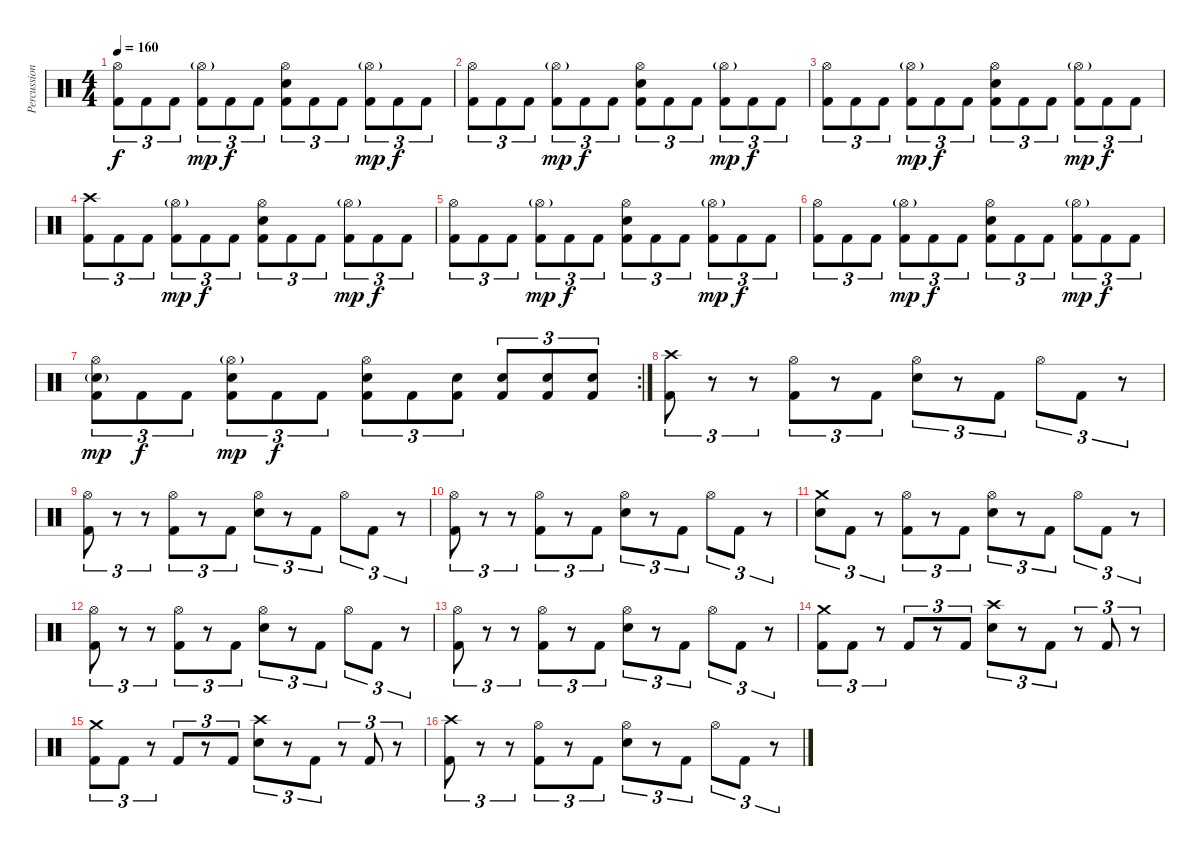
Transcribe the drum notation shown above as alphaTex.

\track ("Percussion" "Percussion") {instrument percussion}
\staff {score}
\articulation defaults
\ts (4 4)
\tempo 160
\clef neutral
\ks c
("Hi-Hat (open)" "Kick (hit) 2").8{tu (3 2) dy f} "Kick (hit) 2".8{tu (3 2)} "Kick (hit) 2".8{tu (3 2)} ("Hi-Hat (open)"{g} "Kick (hit) 2").8{tu (3 2) dy mp} "Kick (hit) 2".8{tu (3 2) dy f} "Kick (hit) 2".8{tu (3 2)} ("Hi-Hat (open)" "Electric Snare (hit)" "Kick (hit) 2").8{tu (3 2)} "Kick (hit) 2".8{tu (3 2)} "Kick (hit) 2".8{tu (3 2)} ("Hi-Hat (open)"{g} "Kick (hit) 2").8{tu (3 2) dy mp} "Kick (hit) 2".8{tu (3 2) dy f} "Kick (hit) 2".8{tu (3 2)} |
("Hi-Hat (open)" "Kick (hit) 2").8{tu (3 2)} "Kick (hit) 2".8{tu (3 2)} "Kick (hit) 2".8{tu (3 2)} ("Hi-Hat (open)"{g} "Kick (hit) 2").8{tu (3 2) dy mp} "Kick (hit) 2".8{tu (3 2) dy f} "Kick (hit) 2".8{tu (3 2)} ("Hi-Hat (open)" "Electric Snare (hit)" "Kick (hit) 2").8{tu (3 2)} "Kick (hit) 2".8{tu (3 2)} "Kick (hit) 2".8{tu (3 2)} ("Hi-Hat (open)"{g} "Kick (hit) 2").8{tu (3 2) dy mp} "Kick (hit) 2".8{tu (3 2) dy f} "Kick (hit) 2".8{tu (3 2)} |
("Hi-Hat (open)" "Kick (hit) 2").8{tu (3 2)} "Kick (hit) 2".8{tu (3 2)} "Kick (hit) 2".8{tu (3 2)} ("Hi-Hat (open)"{g} "Kick (hit) 2").8{tu (3 2) dy mp} "Kick (hit) 2".8{tu (3 2) dy f} "Kick (hit) 2".8{tu (3 2)} ("Hi-Hat (open)" "Electric Snare (hit)" "Kick (hit) 2").8{tu (3 2)} "Kick (hit) 2".8{tu (3 2)} "Kick (hit) 2".8{tu (3 2)} ("Hi-Hat (open)"{g} "Kick (hit) 2").8{tu (3 2) dy mp} "Kick (hit) 2".8{tu (3 2) dy f} "Kick (hit) 2".8{tu (3 2)} |
("Crash high (hit)" "Kick (hit) 2").8{tu (3 2)} "Kick (hit) 2".8{tu (3 2)} "Kick (hit) 2".8{tu (3 2)} ("Hi-Hat (open)"{g} "Kick (hit) 2").8{tu (3 2) dy mp} "Kick (hit) 2".8{tu (3 2) dy f} "Kick (hit) 2".8{tu (3 2)} ("Hi-Hat (open)" "Electric Snare (hit)" "Kick (hit) 2").8{tu (3 2)} "Kick (hit) 2".8{tu (3 2)} "Kick (hit) 2".8{tu (3 2)} ("Hi-Hat (open)"{g} "Kick (hit) 2").8{tu (3 2) dy mp} "Kick (hit) 2".8{tu (3 2) dy f} "Kick (hit) 2".8{tu (3 2)} |
("Hi-Hat (open)" "Kick (hit) 2").8{tu (3 2)} "Kick (hit) 2".8{tu (3 2)} "Kick (hit) 2".8{tu (3 2)} ("Hi-Hat (open)"{g} "Kick (hit) 2").8{tu (3 2) dy mp} "Kick (hit) 2".8{tu (3 2) dy f} "Kick (hit) 2".8{tu (3 2)} ("Hi-Hat (open)" "Electric Snare (hit)" "Kick (hit) 2").8{tu (3 2)} "Kick (hit) 2".8{tu (3 2)} "Kick (hit) 2".8{tu (3 2)} ("Hi-Hat (open)"{g} "Kick (hit) 2").8{tu (3 2) dy mp} "Kick (hit) 2".8{tu (3 2) dy f} "Kick (hit) 2".8{tu (3 2)} |
("Hi-Hat (open)" "Kick (hit) 2").8{tu (3 2)} "Kick (hit) 2".8{tu (3 2)} "Kick (hit) 2".8{tu (3 2)} ("Hi-Hat (open)"{g} "Kick (hit) 2").8{tu (3 2) dy mp} "Kick (hit) 2".8{tu (3 2) dy f} "Kick (hit) 2".8{tu (3 2)} ("Hi-Hat (open)" "Electric Snare (hit)" "Kick (hit) 2").8{tu (3 2)} "Kick (hit) 2".8{tu (3 2)} "Kick (hit) 2".8{tu (3 2)} ("Hi-Hat (open)"{g} "Kick (hit) 2").8{tu (3 2) dy mp} "Kick (hit) 2".8{tu (3 2) dy f} "Kick (hit) 2".8{tu (3 2)} |
\rc 2
("Hi-Hat (open)" "Electric Snare (hit)"{g} "Kick (hit) 2").8{tu (3 2) dy mp} "Kick (hit) 2".8{tu (3 2) dy f} "Kick (hit) 2".8{tu (3 2)} ("Hi-Hat (open)"{g} "Electric Snare (hit)" "Kick (hit) 2").8{tu (3 2) dy mp} "Kick (hit) 2".8{tu (3 2) dy f} "Kick (hit) 2".8{tu (3 2)} ("Hi-Hat (open)" "Electric Snare (hit)" "Kick (hit) 2").8{tu (3 2)} "Kick (hit) 2".8{tu (3 2)} ("Electric Snare (hit)" "Kick (hit) 2").8{tu (3 2)} ("Electric Snare (hit)" "Kick (hit) 2").8{tu (3 2)} ("Electric Snare (hit)" "Kick (hit) 2").8{tu (3 2)} ("Electric Snare (hit)" "Kick (hit) 2").8{tu (3 2)} |
("Crash high (hit)" "Kick (hit) 2").8{tu (3 2)} r.8{tu (3 2)} r.8{tu (3 2)} ("Hi-Hat (open)" "Kick (hit) 2").8{tu (3 2)} r.8{tu (3 2)} "Kick (hit) 2".8{tu (3 2)} ("Hi-Hat (open)" "Electric Snare (hit)").8{tu (3 2)} r.8{tu (3 2)} "Kick (hit) 2".8{tu (3 2)} "Hi-Hat (open)".8{tu (3 2)} "Kick (hit) 2".8{tu (3 2)} r.8{tu (3 2)} |
("Hi-Hat (open)" "Kick (hit) 2").8{tu (3 2)} r.8{tu (3 2)} r.8{tu (3 2)} ("Hi-Hat (open)" "Kick (hit) 2").8{tu (3 2)} r.8{tu (3 2)} "Kick (hit) 2".8{tu (3 2)} ("Hi-Hat (open)" "Electric Snare (hit)").8{tu (3 2)} r.8{tu (3 2)} "Kick (hit) 2".8{tu (3 2)} "Hi-Hat (open)".8{tu (3 2)} "Kick (hit) 2".8{tu (3 2)} r.8{tu (3 2)} |
("Hi-Hat (open)" "Kick (hit) 2").8{tu (3 2)} r.8{tu (3 2)} r.8{tu (3 2)} ("Hi-Hat (open)" "Kick (hit) 2").8{tu (3 2)} r.8{tu (3 2)} "Kick (hit) 2".8{tu (3 2)} ("Hi-Hat (open)" "Electric Snare (hit)").8{tu (3 2)} r.8{tu (3 2)} "Kick (hit) 2".8{tu (3 2)} "Hi-Hat (open)".8{tu (3 2)} "Kick (hit) 2".8{tu (3 2)} r.8{tu (3 2)} |
("Crash medium (hit)" "Electric Snare (hit)").8{tu (3 2)} "Kick (hit) 2".8{tu (3 2)} r.8{tu (3 2)} ("Hi-Hat (open)" "Kick (hit) 2").8{tu (3 2)} r.8{tu (3 2)} "Kick (hit) 2".8{tu (3 2)} ("Hi-Hat (open)" "Electric Snare (hit)").8{tu (3 2)} r.8{tu (3 2)} "Kick (hit) 2".8{tu (3 2)} "Hi-Hat (open)".8{tu (3 2)} "Kick (hit) 2".8{tu (3 2)} r.8{tu (3 2)} |
("Hi-Hat (open)" "Kick (hit) 2").8{tu (3 2)} r.8{tu (3 2)} r.8{tu (3 2)} ("Hi-Hat (open)" "Kick (hit) 2").8{tu (3 2)} r.8{tu (3 2)} "Kick (hit) 2".8{tu (3 2)} ("Hi-Hat (open)" "Electric Snare (hit)").8{tu (3 2)} r.8{tu (3 2)} "Kick (hit) 2".8{tu (3 2)} "Hi-Hat (open)".8{tu (3 2)} "Kick (hit) 2".8{tu (3 2)} r.8{tu (3 2)} |
("Hi-Hat (open)" "Kick (hit) 2").8{tu (3 2)} r.8{tu (3 2)} r.8{tu (3 2)} ("Hi-Hat (open)" "Kick (hit) 2").8{tu (3 2)} r.8{tu (3 2)} "Kick (hit) 2".8{tu (3 2)} ("Hi-Hat (open)" "Electric Snare (hit)").8{tu (3 2)} r.8{tu (3 2)} "Kick (hit) 2".8{tu (3 2)} "Hi-Hat (open)".8{tu (3 2)} "Kick (hit) 2".8{tu (3 2)} r.8{tu (3 2)} |
("Crash medium (hit)" "Kick (hit) 2").8{tu (3 2)} "Kick (hit) 2".8{tu (3 2)} r.8{tu (3 2)} "Kick (hit) 2".8{tu (3 2)} r.8{tu (3 2)} "Kick (hit) 2".8{tu (3 2)} ("Crash high (hit)" "Electric Snare (hit)").8{tu (3 2)} r.8{tu (3 2)} "Kick (hit) 2".8{tu (3 2)} r.8{tu (3 2)} "Kick (hit) 2".8{tu (3 2)} r.8{tu (3 2)} |
("Crash medium (hit)" "Kick (hit) 2").8{tu (3 2)} "Kick (hit) 2".8{tu (3 2)} r.8{tu (3 2)} "Kick (hit) 2".8{tu (3 2)} r.8{tu (3 2)} "Kick (hit) 2".8{tu (3 2)} ("Crash high (hit)" "Electric Snare (hit)").8{tu (3 2)} r.8{tu (3 2)} "Kick (hit) 2".8{tu (3 2)} r.8{tu (3 2)} "Kick (hit) 2".8{tu (3 2)} r.8{tu (3 2)} |
("Crash high (hit)" "Kick (hit) 2").8{tu (3 2)} r.8{tu (3 2)} r.8{tu (3 2)} ("Hi-Hat (open)" "Kick (hit) 2").8{tu (3 2)} r.8{tu (3 2)} "Kick (hit) 2".8{tu (3 2)} ("Hi-Hat (open)" "Electric Snare (hit)").8{tu (3 2)} r.8{tu (3 2)} "Kick (hit) 2".8{tu (3 2)} "Hi-Hat (open)".8{tu (3 2)} "Kick (hit) 2".8{tu (3 2)} r.8{tu (3 2)}
